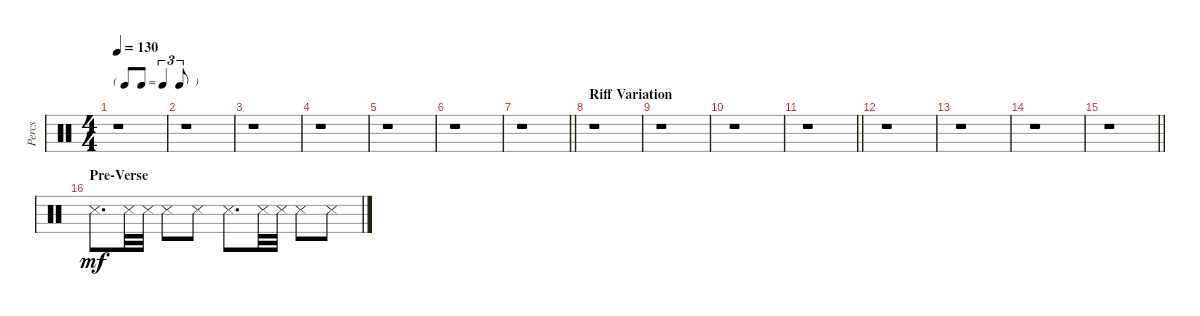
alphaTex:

\track ("Percs" "Percs") {instrument percussion}
\staff {score}
\articulation defaults
\ts (4 4)
\tf triplet8th
\tempo 130
\clef neutral
\ks c
r.1{dy mf} |
r.1 |
r.1 |
r.1 |
r.1 |
r.1 |
\barLineRight lightlight
r.1 |
\section ("" "Riff Variation")
r.1 |
r.1 |
r.1 |
\barLineRight lightlight
r.1 |
r.1 |
r.1 |
r.1 |
\barLineRight lightlight
r.1 |
\section ("" "Pre-Verse")
"Snare (side stick) 3".8{d} "Snare (side stick) 3".32 "Snare (side stick) 3".32 "Snare (side stick) 3".8 "Snare (side stick) 3".8 "Snare (side stick) 3".8{d} "Snare (side stick) 3".32 "Snare (side stick) 3".32 "Snare (side stick) 3".8 "Snare (side stick) 3".8
